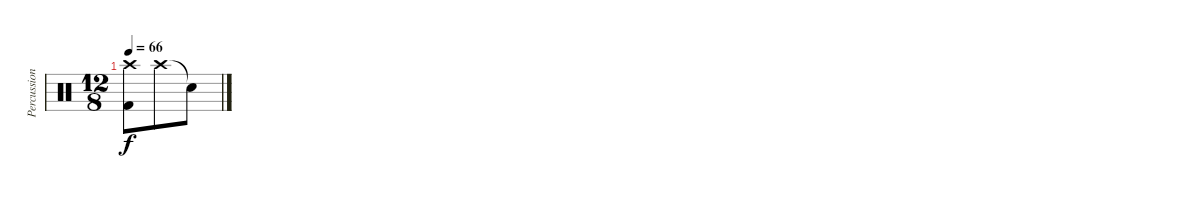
\track ("Percussion" "Percussion") {instrument percussion}
\staff {score}
\articulation defaults
\ts (12 8)
\tempo 66
\clef neutral
\ks c
("Crash high (hit)" "Kick (hit) 2").8{dy f} "Crash high (hit)".8 "Snare (hit)"{t}.8
